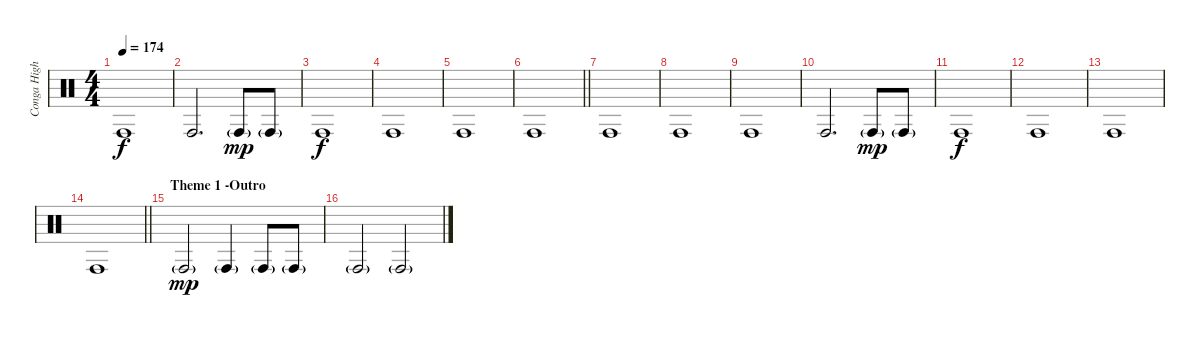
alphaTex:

\track ("Conga High" "Conga High") {instrument percussion}
\staff {score}
\articulation defaults
\ts (4 4)
\tempo 174
\clef neutral
\ks c "Conga high (hit)".1{dy f}
|
"Conga high (hit)".2{d} "Conga high (hit)"{g}.8{dy mp} "Conga high (hit)"{g}.8 |
"Conga high (hit)".1{dy f} |
"Conga high (hit)".1 |
"Conga high (hit)".1 |
\barLineRight lightlight "Conga high (hit)".1
|
"Conga high (hit)".1 |
"Conga high (hit)".1 |
"Conga high (hit)".1 |
"Conga high (hit)".2{d} "Conga high (hit)"{g}.8{dy mp} "Conga high (hit)"{g}.8 |
"Conga high (hit)".1{dy f} |
"Conga high (hit)".1 |
"Conga high (hit)".1 |
\barLineRight lightlight "Conga high (hit)".1
|
\section ("" "Theme 1 -Outro")
"Conga high (hit)"{g}.2{dy mp} "Conga high (hit)"{g}.4 "Conga high (hit)"{g}.8 "Conga high (hit)"{g}.8 |
"Conga high (hit)"{g}.2 "Conga high (hit)"{g}.2
